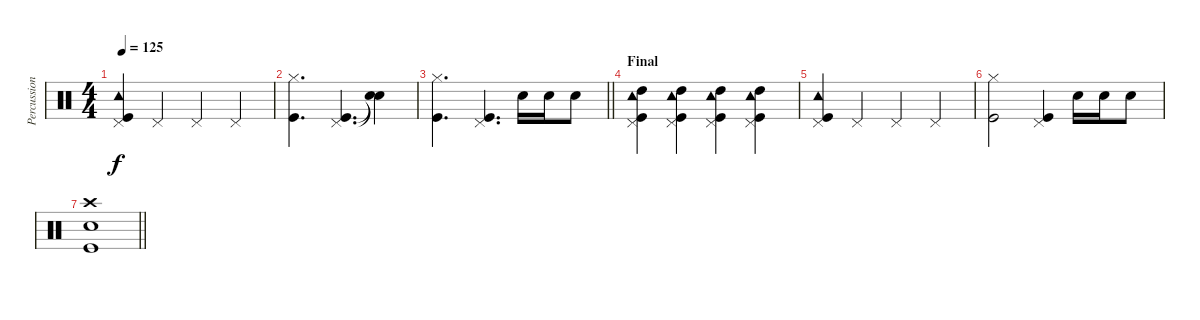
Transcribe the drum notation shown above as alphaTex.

\track ("Percussions" "Percussion") {instrument percussion}
\staff {score}
\articulation defaults
\ts (4 4)
\tempo 125
\clef neutral
\ks c
("Tambourine (hit)" "Pedal Hi-Hat (hit)" "Kick (hit)").4{dy f} "Pedal Hi-Hat (hit)".4 "Pedal Hi-Hat (hit)".4 "Pedal Hi-Hat (hit)".4 |
("Hi-Hat (closed)" "Kick (hit)").4{d} ("Pedal Hi-Hat (hit)" "Kick (hit)").4{d} ("Snare (hit)"{t} "Snare (hit)"{t}).4 |
\barLineRight lightlight
("Hi-Hat (closed)" "Kick (hit)").4{d} ("Pedal Hi-Hat (hit)" "Kick (hit)").4{d} "Snare (hit) 2".16 "Snare (hit) 2".16 "Snare (hit) 2".8 |
\section ("" "Final")
("Tambourine (hit)" "Pedal Hi-Hat (hit)" "High Tom (hit)" "Kick (hit)").4 ("Tambourine (hit)" "Pedal Hi-Hat (hit)" "High Tom (hit)" "Kick (hit)").4 ("Tambourine (hit)" "Pedal Hi-Hat (hit)" "High Tom (hit)" "Kick (hit)").4 ("Tambourine (hit)" "Pedal Hi-Hat (hit)" "High Tom (hit)" "Kick (hit)").4 |
("Tambourine (hit)" "Pedal Hi-Hat (hit)" "Kick (hit)").4 "Pedal Hi-Hat (hit)".4 "Pedal Hi-Hat (hit)".4 "Pedal Hi-Hat (hit)".4 |
("Hi-Hat (closed)" "Kick (hit)").2 ("Pedal Hi-Hat (hit)" "Kick (hit)").4 "Snare (hit) 2".16 "Snare (hit) 2".16 "Snare (hit) 2".8 |
\barLineRight lightlight
("Crash high (hit)" "Snare (hit) 2" "Kick (hit)").1
